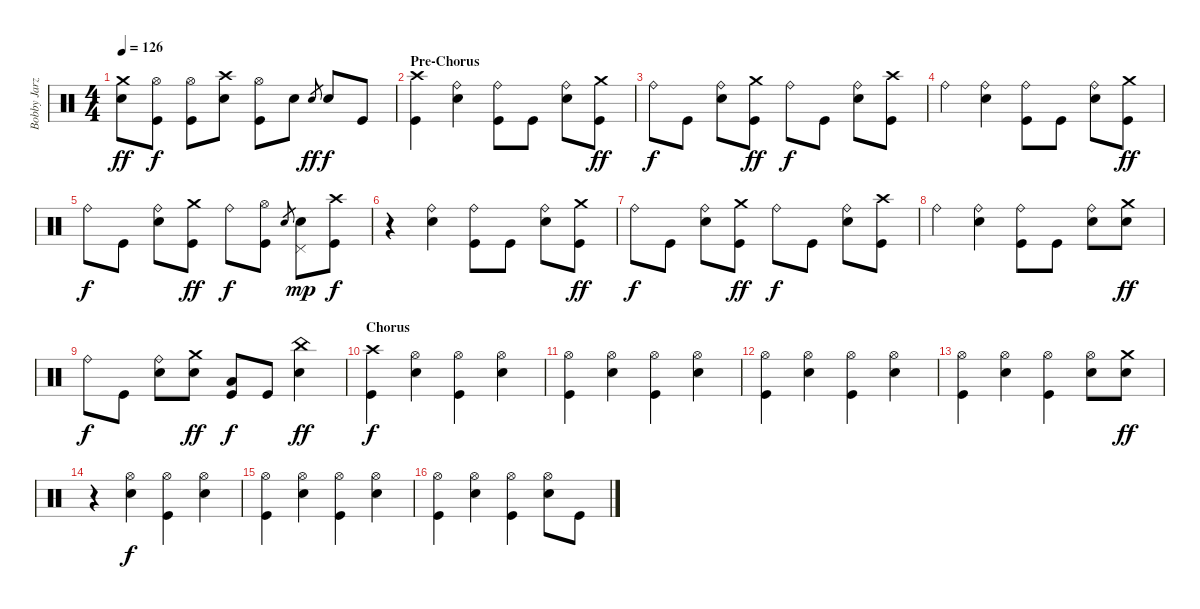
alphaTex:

\track ("Bobby Jarzombek" "Bobby Jarz") {instrument percussion}
\staff {score}
\articulation defaults
\ts (4 4)
\tempo 126
\clef neutral
\ks c
("Crash medium (hit)" "Electric Snare (hit)").8{dy ff} ("Hi-Hat (open)" "Kick (hit)").8{dy f} ("Hi-Hat (open)" "Kick (hit)").8 ("Crash high (hit)" "Electric Snare (hit)").8 ("Hi-Hat (open)" "Kick (hit)").8 "Electric Snare (hit)".8 "Electric Snare (hit)".8{gr dy ff} "Electric Snare (hit)".8{dy f} "Kick (hit)".8 |
\section ("" "Pre-Chorus")
("Crash high (hit)" "Kick (hit)").4 ("Ride (bell)" "Electric Snare (hit)").4 ("Ride (bell)" "Kick (hit)").8 "Kick (hit)".8 ("Ride (bell)" "Electric Snare (hit)").8 ("Crash medium (hit)" "Kick (hit)").8{dy ff} |
"Ride (bell)".8{dy f} "Kick (hit)".8 ("Ride (bell)" "Electric Snare (hit)").8 ("Crash medium (hit)" "Kick (hit)").8{dy ff} "Ride (bell)".8{dy f} "Kick (hit)".8 ("Ride (bell)" "Electric Snare (hit)").8 ("Crash high (hit)" "Kick (hit)").8 |
"Ride (bell)".4 ("Ride (bell)" "Electric Snare (hit)").4 ("Ride (bell)" "Kick (hit)").8 "Kick (hit)".8 ("Ride (bell)" "Electric Snare (hit)").8 ("Crash medium (hit)" "Kick (hit)").8{dy ff} |
"Ride (bell)".8{dy f} "Kick (hit)".8 ("Ride (bell)" "Electric Snare (hit)").8 ("Crash medium (hit)" "Kick (hit)").8{dy ff} "Ride (bell)".8{dy f} ("Hi-Hat (open)" "Kick (hit)").8 "Electric Snare (hit)".8{gr} ("Electric Snare (hit)" "Pedal Hi-Hat (hit)").8{dy mp} ("Crash high (hit)" "Kick (hit)").8{dy f} |
r.4 ("Ride (bell)" "Electric Snare (hit)").4 ("Ride (bell)" "Kick (hit)").8 "Kick (hit)".8 ("Ride (bell)" "Electric Snare (hit)").8 ("Crash medium (hit)" "Kick (hit)").8{dy ff} |
"Ride (bell)".8{dy f} "Kick (hit)".8 ("Ride (bell)" "Electric Snare (hit)").8 ("Crash medium (hit)" "Kick (hit)").8{dy ff} "Ride (bell)".8{dy f} "Kick (hit)".8 ("Ride (bell)" "Electric Snare (hit)").8 ("Crash high (hit)" "Kick (hit)").8 |
"Ride (bell)".4 ("Ride (bell)" "Electric Snare (hit)").4 ("Ride (bell)" "Kick (hit)").8 "Kick (hit)".8 ("Ride (bell)" "Electric Snare (hit)").8 ("Crash medium (hit)" "Electric Snare (hit)").8{dy ff} |
"Ride (bell)".8{dy f} "Kick (hit)".8 ("Ride (bell)" "Electric Snare (hit)").8 ("Crash medium (hit)" "Electric Snare (hit)").8{dy ff} ("Low Tom (hit)" "Kick (hit)").8{dy f} "Kick (hit)".8 ("China (hit)" "Electric Snare (hit)").4{dy ff} |
\section ("" "Chorus")
("Crash high (hit)" "Kick (hit)").4{dy f} ("Hi-Hat (open)" "Electric Snare (hit)").4 ("Hi-Hat (open)" "Kick (hit)").4 ("Hi-Hat (open)" "Electric Snare (hit)").4 |
("Hi-Hat (open)" "Kick (hit)").4 ("Hi-Hat (open)" "Electric Snare (hit)").4 ("Hi-Hat (open)" "Kick (hit)").4 ("Hi-Hat (open)" "Electric Snare (hit)").4 |
("Hi-Hat (open)" "Kick (hit)").4 ("Hi-Hat (open)" "Electric Snare (hit)").4 ("Hi-Hat (open)" "Kick (hit)").4 ("Hi-Hat (open)" "Electric Snare (hit)").4 |
("Hi-Hat (open)" "Kick (hit)").4 ("Hi-Hat (open)" "Electric Snare (hit)").4 ("Hi-Hat (open)" "Kick (hit)").4 ("Hi-Hat (open)" "Electric Snare (hit)").8 ("Crash medium (hit)" "Electric Snare (hit)").8{dy ff} |
r.4 ("Hi-Hat (open)" "Electric Snare (hit)").4{dy f} ("Hi-Hat (open)" "Kick (hit)").4 ("Hi-Hat (open)" "Electric Snare (hit)").4 |
("Hi-Hat (open)" "Kick (hit)").4 ("Hi-Hat (open)" "Electric Snare (hit)").4 ("Hi-Hat (open)" "Kick (hit)").4 ("Hi-Hat (open)" "Electric Snare (hit)").4 |
("Hi-Hat (open)" "Kick (hit)").4 ("Hi-Hat (open)" "Electric Snare (hit)").4 ("Hi-Hat (open)" "Kick (hit)").4 ("Hi-Hat (open)" "Electric Snare (hit)").8 "Kick (hit)".8
